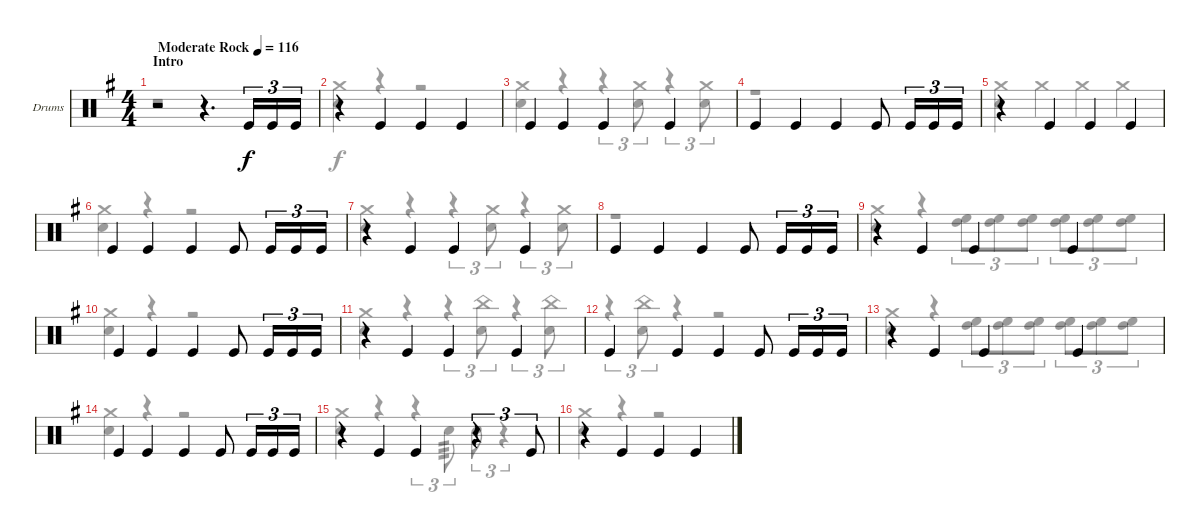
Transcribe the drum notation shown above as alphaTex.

\bracketExtendMode groupsimilarinstruments
\firstSystemTrackNameOrientation horizontal
\otherSystemsTrackNameOrientation horizontal
\track ("Drumkit" "Drums") {instrument percussion}
\staff {score}
\articulation defaults
\voice
\ts (4 4)
\beaming (8 4 4)
\section ("" "Intro")
\tempo (116 "Moderate Rock")
\clef neutral
\scale
1.07314
\ks g
r.2{dy f} r.4{d} "Kick (hit)".16{tu (3 2)} "Kick (hit)".16{tu (3 2)} "Kick (hit)".16{tu (3 2)} |
\scale
0.92686 r.4 "Kick (hit)".4 "Kick (hit)".4 "Kick (hit)".4 |
\scale
1.04288 "Kick (hit)".4 "Kick (hit)".4 "Kick (hit)".4 "Kick (hit)".4 |
\scale
0.957125 "Kick (hit)".4 "Kick (hit)".4 "Kick (hit)".4 "Kick (hit)".8 "Kick (hit)".16{tu (3 2)} "Kick (hit)".16{tu (3 2)} "Kick (hit)".16{tu (3 2)} |
\scale
1.04288 r.4 "Kick (hit)".4 "Kick (hit)".4 "Kick (hit)".4 |
\scale
0.957125 "Kick (hit)".4 "Kick (hit)".4 "Kick (hit)".4 "Kick (hit)".8 "Kick (hit)".16{tu (3 2)} "Kick (hit)".16{tu (3 2)} "Kick (hit)".16{tu (3 2)} |
\scale
1.04288 r.4 "Kick (hit)".4 "Kick (hit)".4 "Kick (hit)".4 |
\scale
0.957125 "Kick (hit)".4 "Kick (hit)".4 "Kick (hit)".4 "Kick (hit)".8 "Kick (hit)".16{tu (3 2)} "Kick (hit)".16{tu (3 2)} "Kick (hit)".16{tu (3 2)} |
\scale
1.04288 r.4 "Kick (hit)".4 "Kick (hit)".4 "Kick (hit)".4 |
\scale
0.957125 "Kick (hit)".4 "Kick (hit)".4 "Kick (hit)".4 "Kick (hit)".8 "Kick (hit)".16{tu (3 2)} "Kick (hit)".16{tu (3 2)} "Kick (hit)".16{tu (3 2)} |
\scale
1.04288 r.4 "Kick (hit)".4 "Kick (hit)".4 "Kick (hit)".4 |
\scale
0.957125 "Kick (hit)".4 "Kick (hit)".4 "Kick (hit)".4 "Kick (hit)".8 "Kick (hit)".16{tu (3 2)} "Kick (hit)".16{tu (3 2)} "Kick (hit)".16{tu (3 2)} |
\scale
1.04288 r.4 "Kick (hit)".4 "Kick (hit)".4 "Kick (hit)".4 |
\scale
0.957125 "Kick (hit)".4 "Kick (hit)".4 "Kick (hit)".4 "Kick (hit)".8 "Kick (hit)".16{tu (3 2)} "Kick (hit)".16{tu (3 2)} "Kick (hit)".16{tu (3 2)} |
\scale
1.04288 r.4 "Kick (hit)".4 "Kick (hit)".4 r.4{tu (3 2)} "Kick (hit)".8{tu (3 2)} |
\scale
0.957125 r.4 "Kick (hit)".4 "Kick (hit)".4 "Kick (hit)".4
\voice
\clef neutral
\ottava regular
\simile none
\scale
1.07314
\ks g
r.1{dy f} |
\scale
0.92686 ("Crash medium (hit)" "Snare (hit) 2").4 r.4 r.2 |
\scale
1.04288 ("Crash medium (hit)" "Snare (hit) 2").4 r.4 r.4{tu (3 2)} ("Crash medium (hit)" "Snare (hit) 2").8{tu (3 2)} r.4{tu (3 2)} ("Crash medium (hit)" "Snare (hit) 2").8{tu (3 2)} |
\scale
0.957125 r.1 |
\scale
1.04288 ("Crash medium (hit)" "Snare (hit) 2").4 "Crash medium (hit)".4 "Crash medium (hit)".4 "Crash medium (hit)".4 |
\scale
0.957125 ("Crash medium (hit)" "Snare (hit) 2").4 r.4 r.2 |
\scale
1.04288 ("Crash medium (hit)" "Snare (hit) 2").4 r.4 r.4{tu (3 2)} ("Crash medium (hit)" "Snare (hit) 2").8{tu (3 2)} r.4{tu (3 2)} ("Crash medium (hit)" "Snare (hit) 2").8{tu (3 2)} |
\scale
0.957125 r.1 |
\scale
1.04288 ("Crash medium (hit)" "Snare (hit) 2").4 r.4 ("High Tom (hit)" "High Floor Tom (hit)").8{tu (3 2)} ("High Tom (hit)" "High Floor Tom (hit)").8{tu (3 2)} ("High Tom (hit)" "High Floor Tom (hit)").8{tu (3 2)} ("High Tom (hit)" "High Floor Tom (hit)").8{tu (3 2)} ("High Tom (hit)" "High Floor Tom (hit)").8{tu (3 2)} ("High Tom (hit)" "High Floor Tom (hit)").8{tu (3 2)} |
\scale
0.957125 ("Crash medium (hit)" "Snare (hit) 2").4 r.4 r.2 |
\scale
1.04288 ("Crash medium (hit)" "Snare (hit) 2").4 r.4 r.4{tu (3 2)} ("China (hit)" "Snare (hit) 2").8{tu (3 2)} r.4{tu (3 2)} ("China (hit)" "Snare (hit) 2").8{tu (3 2)} |
\scale
0.957125 r.4{tu (3 2)} ("China (hit)" "Snare (hit) 2").8{tu (3 2)} r.4 r.2 |
\scale
1.04288 ("Crash medium (hit)" "Snare (hit) 2").4 r.4 ("High Tom (hit)" "High Floor Tom (hit)").8{tu (3 2)} ("High Tom (hit)" "High Floor Tom (hit)").8{tu (3 2)} ("High Tom (hit)" "High Floor Tom (hit)").8{tu (3 2)} ("High Tom (hit)" "High Floor Tom (hit)").8{tu (3 2)} ("High Tom (hit)" "High Floor Tom (hit)").8{tu (3 2)} ("High Tom (hit)" "High Floor Tom (hit)").8{tu (3 2)} |
\scale
0.957125 ("Crash medium (hit)" "Snare (hit) 2").4 r.4 r.2 |
\scale
1.04288 ("Crash medium (hit)" "Snare (hit) 2").4 r.4 r.4{tu (3 2)} "Snare (hit) 2".8{tu (3 2) tp 3} "Snare (hit) 2".8{tu (3 2)} r.4{tu (3 2)} |
\scale
0.957125 ("Crash medium (hit)" "Snare (hit) 2").4 r.4 r.2
